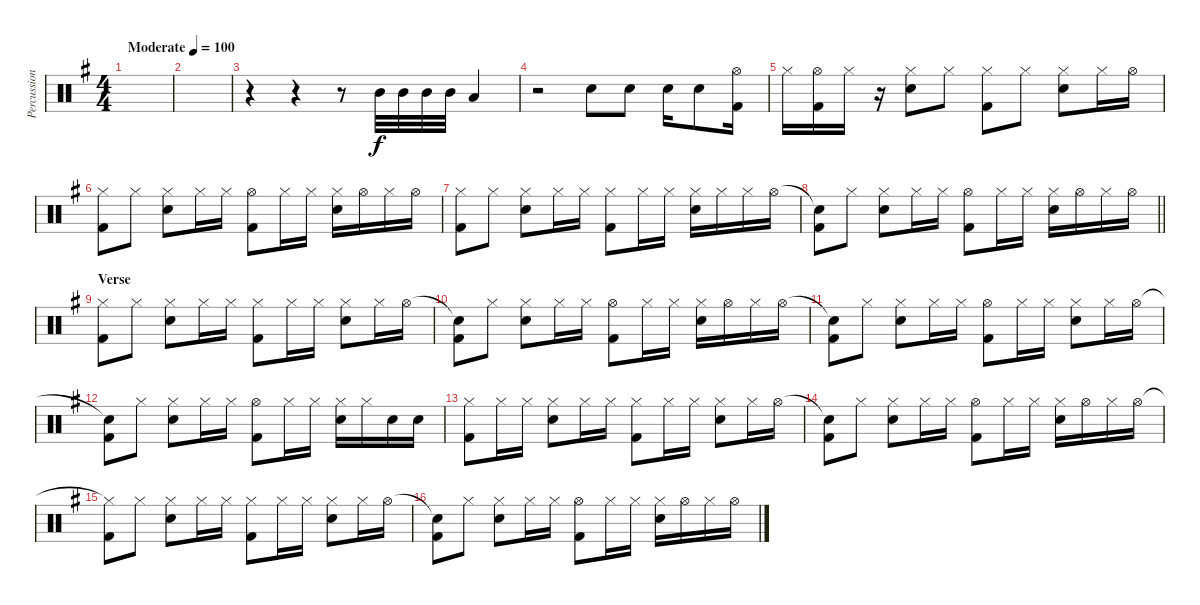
\track ("Percussion" "Percussion") {instrument percussion}
\staff {score}
\articulation defaults
\ts (4 4)
\tempo (100 "Moderate")
\clef neutral
\ks g
|
|
r.4 r.4 r.8 "Mid Tom (hit)".32 "Mid Tom (hit)".32 "Mid Tom (hit)".32 "Mid Tom (hit)".32 "Low Tom (hit)".4 |
r.2 "Electric Snare (hit)".8 "Electric Snare (hit)".8 "Electric Snare (hit)".16 "Electric Snare (hit)".8 ("Hi-Hat (open)" "Kick (hit) 2").16 |
"Hi-Hat (closed)".16 ("Hi-Hat (open)" "Kick (hit) 2").16 "Hi-Hat (closed)".16 r.16 ("Hi-Hat (closed)" "Electric Snare (hit)").8 "Hi-Hat (closed)".8 ("Hi-Hat (closed)" "Kick (hit) 2").8 "Hi-Hat (closed)".8 ("Hi-Hat (closed)" "Electric Snare (hit)").8 "Hi-Hat (closed)".16 "Hi-Hat (open)".16 |
("Hi-Hat (closed)" "Kick (hit) 2").8 "Hi-Hat (closed)".8 ("Hi-Hat (closed)" "Electric Snare (hit)").8 "Hi-Hat (closed)".16 "Hi-Hat (closed)".16 ("Hi-Hat (open)" "Kick (hit) 2").8 "Hi-Hat (closed)".16 "Hi-Hat (closed)".16 ("Hi-Hat (closed)" "Electric Snare (hit)").16 "Hi-Hat (open)".16 "Hi-Hat (closed)".16 "Hi-Hat (open)".16 |
("Hi-Hat (closed)" "Kick (hit) 2").8 "Hi-Hat (closed)".8 ("Hi-Hat (closed)" "Electric Snare (hit)").8 "Hi-Hat (closed)".16 "Hi-Hat (closed)".16 ("Hi-Hat (closed)" "Kick (hit) 2").8 "Hi-Hat (closed)".16 "Hi-Hat (closed)".16 ("Hi-Hat (closed)" "Electric Snare (hit)").16 "Hi-Hat (closed)".16 "Hi-Hat (closed)".16 "Hi-Hat (open)".16 |
\barLineRight lightlight
("Snare (hit)"{t} "Kick (hit) 2").8 "Hi-Hat (closed)".8 ("Hi-Hat (closed)" "Electric Snare (hit)").8 "Hi-Hat (closed)".16 "Hi-Hat (closed)".16 ("Hi-Hat (open)" "Kick (hit) 2").8 "Hi-Hat (closed)".16 "Hi-Hat (closed)".16 ("Hi-Hat (closed)" "Electric Snare (hit)").16 "Hi-Hat (open)".16 "Hi-Hat (closed)".16 "Hi-Hat (open)".16 |
\section ("" "Verse")
("Hi-Hat (closed)" "Kick (hit) 2").8 "Hi-Hat (closed)".8 ("Hi-Hat (closed)" "Electric Snare (hit)").8 "Hi-Hat (closed)".16 "Hi-Hat (closed)".16 ("Hi-Hat (closed)" "Kick (hit) 2").8 "Hi-Hat (closed)".16 "Hi-Hat (closed)".16 ("Hi-Hat (closed)" "Electric Snare (hit)").8 "Hi-Hat (closed)".16 "Hi-Hat (open)".16 |
("Snare (hit)"{t} "Kick (hit) 2").8 "Hi-Hat (closed)".8 ("Hi-Hat (closed)" "Electric Snare (hit)").8 "Hi-Hat (closed)".16 "Hi-Hat (closed)".16 ("Hi-Hat (open)" "Kick (hit) 2").8 "Hi-Hat (closed)".16 "Hi-Hat (closed)".16 ("Hi-Hat (closed)" "Electric Snare (hit)").16 "Hi-Hat (open)".16 "Hi-Hat (closed)".16 "Hi-Hat (open)".16 |
("Snare (hit)"{t} "Kick (hit) 2").8 "Hi-Hat (closed)".8 ("Hi-Hat (closed)" "Electric Snare (hit)").8 "Hi-Hat (closed)".16 "Hi-Hat (closed)".16 ("Hi-Hat (open)" "Kick (hit) 2").8 "Hi-Hat (closed)".16 "Hi-Hat (closed)".16 ("Hi-Hat (closed)" "Electric Snare (hit)").8 "Hi-Hat (closed)".16 "Hi-Hat (open)".16 |
("Snare (hit)"{t} "Kick (hit) 2").8 "Hi-Hat (closed)".8 ("Hi-Hat (closed)" "Electric Snare (hit)").8 "Hi-Hat (closed)".16 "Hi-Hat (closed)".16 ("Hi-Hat (open)" "Kick (hit) 2").8 "Hi-Hat (closed)".16 "Hi-Hat (closed)".16 ("Hi-Hat (closed)" "Electric Snare (hit)").16 "Hi-Hat (closed)".16 "Electric Snare (hit)".16 "Electric Snare (hit)".16 |
("Hi-Hat (closed)" "Kick (hit) 2").8 "Hi-Hat (closed)".16 "Hi-Hat (closed)".16 ("Hi-Hat (closed)" "Electric Snare (hit)").8 "Hi-Hat (closed)".16 "Hi-Hat (closed)".16 ("Hi-Hat (closed)" "Kick (hit) 2").8 "Hi-Hat (closed)".16 "Hi-Hat (closed)".16 ("Hi-Hat (closed)" "Electric Snare (hit)").8 "Hi-Hat (closed)".16 "Hi-Hat (open)".16 |
("Snare (hit)"{t} "Kick (hit) 2").8 "Hi-Hat (closed)".8 ("Hi-Hat (closed)" "Electric Snare (hit)").8 "Hi-Hat (closed)".16 "Hi-Hat (closed)".16 ("Hi-Hat (open)" "Kick (hit) 2").8 "Hi-Hat (closed)".16 "Hi-Hat (closed)".16 ("Hi-Hat (closed)" "Electric Snare (hit)").16 "Hi-Hat (open)".16 "Hi-Hat (closed)".16 "Hi-Hat (open)".16 |
("Hi-Hat (closed)"{t} "Kick (hit) 2").8 "Hi-Hat (closed)".8 ("Hi-Hat (closed)" "Electric Snare (hit)").8 "Hi-Hat (closed)".16 "Hi-Hat (closed)".16 ("Hi-Hat (closed)" "Kick (hit) 2").8 "Hi-Hat (closed)".16 "Hi-Hat (closed)".16 ("Hi-Hat (closed)" "Electric Snare (hit)").8 "Hi-Hat (closed)".16 "Hi-Hat (open)".16 |
("Snare (hit)"{t} "Kick (hit) 2").8 "Hi-Hat (closed)".8 ("Hi-Hat (closed)" "Electric Snare (hit)").8 "Hi-Hat (closed)".16 "Hi-Hat (closed)".16 ("Hi-Hat (open)" "Kick (hit) 2").8 "Hi-Hat (closed)".16 "Hi-Hat (closed)".16 ("Hi-Hat (closed)" "Electric Snare (hit)").16 "Hi-Hat (open)".16 "Hi-Hat (closed)".16 "Hi-Hat (open)".16
